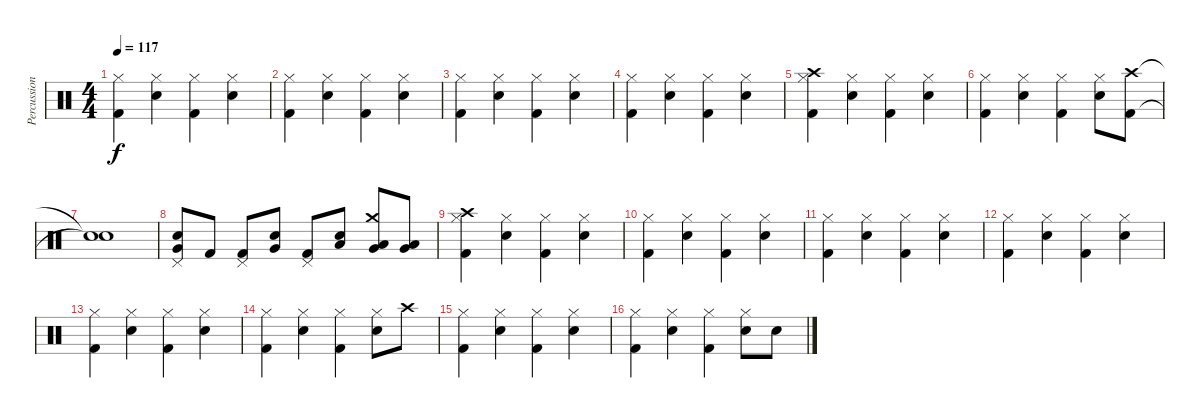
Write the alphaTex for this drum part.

\track ("Percussion" "Percussion") {instrument percussion}
\staff {score}
\articulation defaults
\ts (4 4)
\tempo 117
\clef neutral
\ks c
("Hi-Hat (closed)" "Kick (hit) 2").4{dy f} ("Hi-Hat (closed)" "Metronome (bell)").4 ("Hi-Hat (closed)" "Kick (hit) 2").4 ("Hi-Hat (closed)" "Metronome (bell)").4 |
("Hi-Hat (closed)" "Kick (hit) 2").4 ("Hi-Hat (closed)" "Metronome (bell)").4 ("Hi-Hat (closed)" "Kick (hit) 2").4 ("Hi-Hat (closed)" "Metronome (bell)").4 |
("Hi-Hat (closed)" "Kick (hit) 2").4 ("Hi-Hat (closed)" "Metronome (bell)").4 ("Hi-Hat (closed)" "Kick (hit) 2").4 ("Hi-Hat (closed)" "Metronome (bell)").4 |
("Hi-Hat (closed)" "Kick (hit) 2").4 ("Hi-Hat (closed)" "Metronome (bell)").4 ("Hi-Hat (closed)" "Kick (hit) 2").4 ("Hi-Hat (closed)" "Metronome (bell)").4 |
("Hi-Hat (closed)" "Crash high (hit)" "Kick (hit) 2").4 ("Hi-Hat (closed)" "Metronome (bell)").4 ("Hi-Hat (closed)" "Kick (hit) 2").4 ("Hi-Hat (closed)" "Metronome (bell)").4 |
("Hi-Hat (closed)" "Kick (hit) 2").4 ("Hi-Hat (closed)" "Metronome (bell)").4 ("Hi-Hat (closed)" "Kick (hit) 2").4 ("Hi-Hat (closed)" "Metronome (bell)").8 ("Crash high (hit)" "Kick (hit) 2").8 |
("Snare (hit)"{t} "Snare (hit)"{t}).1 |
("Pedal Hi-Hat (hit)" "Very Low Tom (hit)" "Metronome (bell)").8 "Kick (hit) 2".8 ("Pedal Hi-Hat (hit)" "Kick (hit) 2").8 ("Very Low Tom (hit)" "Metronome (bell)").8 ("Pedal Hi-Hat (hit)" "Kick (hit) 2").8 ("Low Floor Tom (hit)" "Metronome (bell)").8 ("Crash medium (hit)" "Low Tom (hit)" "Very Low Tom (hit)").8 ("Very Low Tom (hit)" "Low Floor Tom (hit)").8 |
("Hi-Hat (closed)" "Crash high (hit)" "Kick (hit) 2").4 ("Hi-Hat (closed)" "Metronome (bell)").4 ("Hi-Hat (closed)" "Kick (hit) 2").4 ("Hi-Hat (closed)" "Metronome (bell)").4 |
("Hi-Hat (closed)" "Kick (hit) 2").4 ("Hi-Hat (closed)" "Metronome (bell)").4 ("Hi-Hat (closed)" "Kick (hit) 2").4 ("Hi-Hat (closed)" "Metronome (bell)").4 |
("Hi-Hat (closed)" "Kick (hit) 2").4 ("Hi-Hat (closed)" "Metronome (bell)").4 ("Hi-Hat (closed)" "Kick (hit) 2").4 ("Hi-Hat (closed)" "Metronome (bell)").4 |
("Hi-Hat (closed)" "Kick (hit) 2").4 ("Hi-Hat (closed)" "Metronome (bell)").4 ("Hi-Hat (closed)" "Kick (hit) 2").4 ("Hi-Hat (closed)" "Metronome (bell)").4 |
("Hi-Hat (closed)" "Kick (hit) 2").4 ("Hi-Hat (closed)" "Metronome (bell)").4 ("Hi-Hat (closed)" "Kick (hit) 2").4 ("Hi-Hat (closed)" "Metronome (bell)").4 |
("Hi-Hat (closed)" "Kick (hit) 2").4 ("Hi-Hat (closed)" "Metronome (bell)").4 ("Hi-Hat (closed)" "Kick (hit) 2").4 ("Hi-Hat (closed)" "Metronome (bell)").8 "Crash high (hit)".8 |
("Hi-Hat (closed)" "Kick (hit) 2").4 ("Hi-Hat (closed)" "Metronome (bell)").4 ("Hi-Hat (closed)" "Kick (hit) 2").4 ("Hi-Hat (closed)" "Metronome (bell)").4 |
("Hi-Hat (closed)" "Kick (hit) 2").4 ("Hi-Hat (closed)" "Metronome (bell)").4 ("Hi-Hat (closed)" "Kick (hit) 2").4 ("Hi-Hat (closed)" "Metronome (bell)").8 "Metronome (bell)".8
